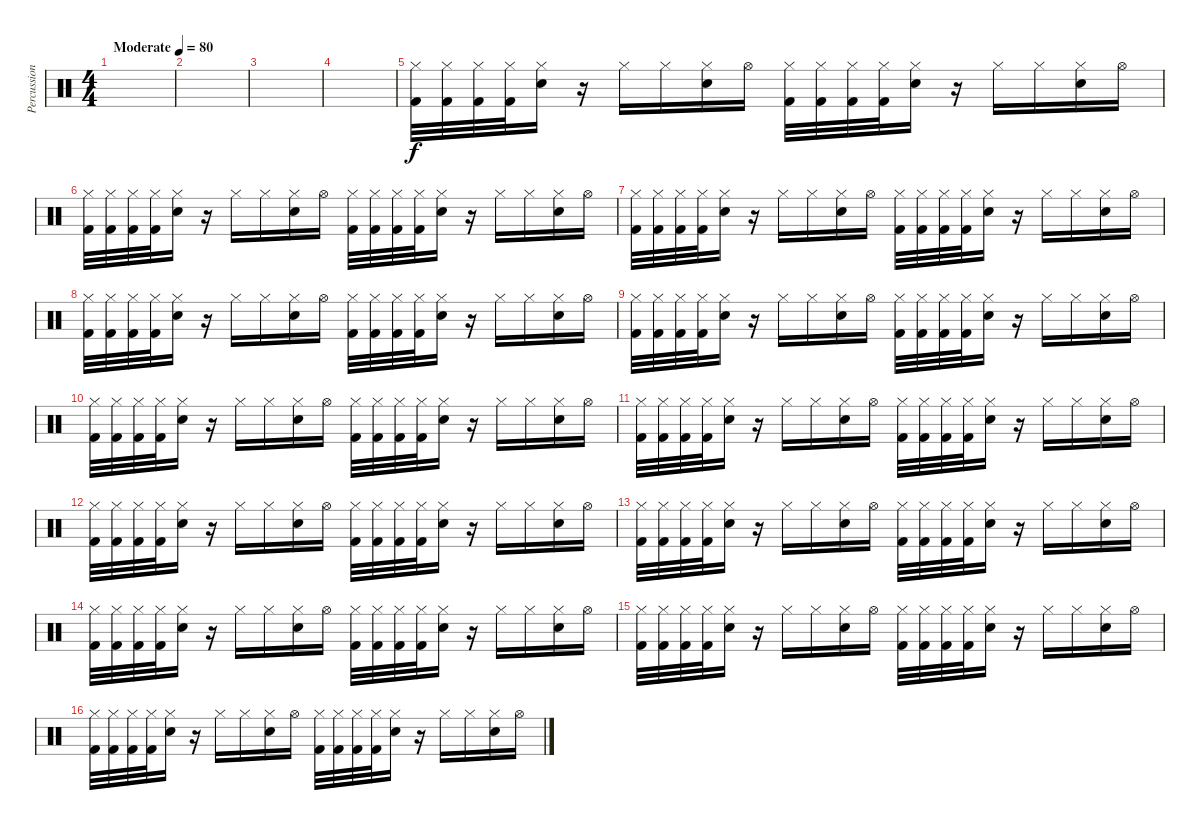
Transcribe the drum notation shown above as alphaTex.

\track ("Percussion" "Percussion") {instrument percussion}
\staff {score}
\articulation defaults
\ts (4 4)
\tempo (80 "Moderate")
\clef neutral
\ks c
|
|
|
|
("Hi-Hat (closed)" "Kick (hit) 2").32 ("Hi-Hat (closed)" "Kick (hit) 2").32 ("Hi-Hat (closed)" "Kick (hit) 2").32 ("Hi-Hat (closed)" "Kick (hit) 2").32 ("Hi-Hat (closed)" "Snare (hit) 2").16 r.16 "Hi-Hat (closed)".16 "Hi-Hat (closed)".16 ("Hi-Hat (closed)" "Snare (hit) 2").16 "Hi-Hat (open)".16 ("Hi-Hat (closed)" "Kick (hit) 2").32 ("Hi-Hat (closed)" "Kick (hit) 2").32 ("Hi-Hat (closed)" "Kick (hit) 2").32 ("Hi-Hat (closed)" "Kick (hit) 2").32 ("Hi-Hat (closed)" "Snare (hit) 2").16 r.16 "Hi-Hat (closed)".16 "Hi-Hat (closed)".16 ("Hi-Hat (closed)" "Snare (hit) 2").16 "Hi-Hat (open)".16 |
("Hi-Hat (closed)" "Kick (hit) 2").32 ("Hi-Hat (closed)" "Kick (hit) 2").32 ("Hi-Hat (closed)" "Kick (hit) 2").32 ("Hi-Hat (closed)" "Kick (hit) 2").32 ("Hi-Hat (closed)" "Snare (hit) 2").16 r.16 "Hi-Hat (closed)".16 "Hi-Hat (closed)".16 ("Hi-Hat (closed)" "Snare (hit) 2").16 "Hi-Hat (open)".16 ("Hi-Hat (closed)" "Kick (hit) 2").32 ("Hi-Hat (closed)" "Kick (hit) 2").32 ("Hi-Hat (closed)" "Kick (hit) 2").32 ("Hi-Hat (closed)" "Kick (hit) 2").32 ("Hi-Hat (closed)" "Snare (hit) 2").16 r.16 "Hi-Hat (closed)".16 "Hi-Hat (closed)".16 ("Hi-Hat (closed)" "Snare (hit) 2").16 "Hi-Hat (open)".16 |
("Hi-Hat (closed)" "Kick (hit) 2").32 ("Hi-Hat (closed)" "Kick (hit) 2").32 ("Hi-Hat (closed)" "Kick (hit) 2").32 ("Hi-Hat (closed)" "Kick (hit) 2").32 ("Hi-Hat (closed)" "Snare (hit) 2").16 r.16 "Hi-Hat (closed)".16 "Hi-Hat (closed)".16 ("Hi-Hat (closed)" "Snare (hit) 2").16 "Hi-Hat (open)".16 ("Hi-Hat (closed)" "Kick (hit) 2").32 ("Hi-Hat (closed)" "Kick (hit) 2").32 ("Hi-Hat (closed)" "Kick (hit) 2").32 ("Hi-Hat (closed)" "Kick (hit) 2").32 ("Hi-Hat (closed)" "Snare (hit) 2").16 r.16 "Hi-Hat (closed)".16 "Hi-Hat (closed)".16 ("Hi-Hat (closed)" "Snare (hit) 2").16 "Hi-Hat (open)".16 |
("Hi-Hat (closed)" "Kick (hit) 2").32 ("Hi-Hat (closed)" "Kick (hit) 2").32 ("Hi-Hat (closed)" "Kick (hit) 2").32 ("Hi-Hat (closed)" "Kick (hit) 2").32 ("Hi-Hat (closed)" "Snare (hit) 2").16 r.16 "Hi-Hat (closed)".16 "Hi-Hat (closed)".16 ("Hi-Hat (closed)" "Snare (hit) 2").16 "Hi-Hat (open)".16 ("Hi-Hat (closed)" "Kick (hit) 2").32 ("Hi-Hat (closed)" "Kick (hit) 2").32 ("Hi-Hat (closed)" "Kick (hit) 2").32 ("Hi-Hat (closed)" "Kick (hit) 2").32 ("Hi-Hat (closed)" "Snare (hit) 2").16 r.16 "Hi-Hat (closed)".16 "Hi-Hat (closed)".16 ("Hi-Hat (closed)" "Snare (hit) 2").16 "Hi-Hat (open)".16 |
("Hi-Hat (closed)" "Kick (hit) 2").32 ("Hi-Hat (closed)" "Kick (hit) 2").32 ("Hi-Hat (closed)" "Kick (hit) 2").32 ("Hi-Hat (closed)" "Kick (hit) 2").32 ("Hi-Hat (closed)" "Snare (hit) 2").16 r.16 "Hi-Hat (closed)".16 "Hi-Hat (closed)".16 ("Hi-Hat (closed)" "Snare (hit) 2").16 "Hi-Hat (open)".16 ("Hi-Hat (closed)" "Kick (hit) 2").32 ("Hi-Hat (closed)" "Kick (hit) 2").32 ("Hi-Hat (closed)" "Kick (hit) 2").32 ("Hi-Hat (closed)" "Kick (hit) 2").32 ("Hi-Hat (closed)" "Snare (hit) 2").16 r.16 "Hi-Hat (closed)".16 "Hi-Hat (closed)".16 ("Hi-Hat (closed)" "Snare (hit) 2").16 "Hi-Hat (open)".16 |
("Hi-Hat (closed)" "Kick (hit) 2").32 ("Hi-Hat (closed)" "Kick (hit) 2").32 ("Hi-Hat (closed)" "Kick (hit) 2").32 ("Hi-Hat (closed)" "Kick (hit) 2").32 ("Hi-Hat (closed)" "Snare (hit) 2").16 r.16 "Hi-Hat (closed)".16 "Hi-Hat (closed)".16 ("Hi-Hat (closed)" "Snare (hit) 2").16 "Hi-Hat (open)".16 ("Hi-Hat (closed)" "Kick (hit) 2").32 ("Hi-Hat (closed)" "Kick (hit) 2").32 ("Hi-Hat (closed)" "Kick (hit) 2").32 ("Hi-Hat (closed)" "Kick (hit) 2").32 ("Hi-Hat (closed)" "Snare (hit) 2").16 r.16 "Hi-Hat (closed)".16 "Hi-Hat (closed)".16 ("Hi-Hat (closed)" "Snare (hit) 2").16 "Hi-Hat (open)".16 |
("Hi-Hat (closed)" "Kick (hit) 2").32 ("Hi-Hat (closed)" "Kick (hit) 2").32 ("Hi-Hat (closed)" "Kick (hit) 2").32 ("Hi-Hat (closed)" "Kick (hit) 2").32 ("Hi-Hat (closed)" "Snare (hit) 2").16 r.16 "Hi-Hat (closed)".16 "Hi-Hat (closed)".16 ("Hi-Hat (closed)" "Snare (hit) 2").16 "Hi-Hat (open)".16 ("Hi-Hat (closed)" "Kick (hit) 2").32 ("Hi-Hat (closed)" "Kick (hit) 2").32 ("Hi-Hat (closed)" "Kick (hit) 2").32 ("Hi-Hat (closed)" "Kick (hit) 2").32 ("Hi-Hat (closed)" "Snare (hit) 2").16 r.16 "Hi-Hat (closed)".16 "Hi-Hat (closed)".16 ("Hi-Hat (closed)" "Snare (hit) 2").16 "Hi-Hat (open)".16 |
("Hi-Hat (closed)" "Kick (hit) 2").32 ("Hi-Hat (closed)" "Kick (hit) 2").32 ("Hi-Hat (closed)" "Kick (hit) 2").32 ("Hi-Hat (closed)" "Kick (hit) 2").32 ("Hi-Hat (closed)" "Snare (hit) 2").16 r.16 "Hi-Hat (closed)".16 "Hi-Hat (closed)".16 ("Hi-Hat (closed)" "Snare (hit) 2").16 "Hi-Hat (open)".16 ("Hi-Hat (closed)" "Kick (hit) 2").32 ("Hi-Hat (closed)" "Kick (hit) 2").32 ("Hi-Hat (closed)" "Kick (hit) 2").32 ("Hi-Hat (closed)" "Kick (hit) 2").32 ("Hi-Hat (closed)" "Snare (hit) 2").16 r.16 "Hi-Hat (closed)".16 "Hi-Hat (closed)".16 ("Hi-Hat (closed)" "Snare (hit) 2").16 "Hi-Hat (open)".16 |
("Hi-Hat (closed)" "Kick (hit) 2").32 ("Hi-Hat (closed)" "Kick (hit) 2").32 ("Hi-Hat (closed)" "Kick (hit) 2").32 ("Hi-Hat (closed)" "Kick (hit) 2").32 ("Hi-Hat (closed)" "Snare (hit) 2").16 r.16 "Hi-Hat (closed)".16 "Hi-Hat (closed)".16 ("Hi-Hat (closed)" "Snare (hit) 2").16 "Hi-Hat (open)".16 ("Hi-Hat (closed)" "Kick (hit) 2").32 ("Hi-Hat (closed)" "Kick (hit) 2").32 ("Hi-Hat (closed)" "Kick (hit) 2").32 ("Hi-Hat (closed)" "Kick (hit) 2").32 ("Hi-Hat (closed)" "Snare (hit) 2").16 r.16 "Hi-Hat (closed)".16 "Hi-Hat (closed)".16 ("Hi-Hat (closed)" "Snare (hit) 2").16 "Hi-Hat (open)".16 |
("Hi-Hat (closed)" "Kick (hit) 2").32 ("Hi-Hat (closed)" "Kick (hit) 2").32 ("Hi-Hat (closed)" "Kick (hit) 2").32 ("Hi-Hat (closed)" "Kick (hit) 2").32 ("Hi-Hat (closed)" "Snare (hit) 2").16 r.16 "Hi-Hat (closed)".16 "Hi-Hat (closed)".16 ("Hi-Hat (closed)" "Snare (hit) 2").16 "Hi-Hat (open)".16 ("Hi-Hat (closed)" "Kick (hit) 2").32 ("Hi-Hat (closed)" "Kick (hit) 2").32 ("Hi-Hat (closed)" "Kick (hit) 2").32 ("Hi-Hat (closed)" "Kick (hit) 2").32 ("Hi-Hat (closed)" "Snare (hit) 2").16 r.16 "Hi-Hat (closed)".16 "Hi-Hat (closed)".16 ("Hi-Hat (closed)" "Snare (hit) 2").16 "Hi-Hat (open)".16 |
("Hi-Hat (closed)" "Kick (hit) 2").32 ("Hi-Hat (closed)" "Kick (hit) 2").32 ("Hi-Hat (closed)" "Kick (hit) 2").32 ("Hi-Hat (closed)" "Kick (hit) 2").32 ("Hi-Hat (closed)" "Snare (hit) 2").16 r.16 "Hi-Hat (closed)".16 "Hi-Hat (closed)".16 ("Hi-Hat (closed)" "Snare (hit) 2").16 "Hi-Hat (open)".16 ("Hi-Hat (closed)" "Kick (hit) 2").32 ("Hi-Hat (closed)" "Kick (hit) 2").32 ("Hi-Hat (closed)" "Kick (hit) 2").32 ("Hi-Hat (closed)" "Kick (hit) 2").32 ("Hi-Hat (closed)" "Snare (hit) 2").16 r.16 "Hi-Hat (closed)".16 "Hi-Hat (closed)".16 ("Hi-Hat (closed)" "Snare (hit) 2").16 "Hi-Hat (open)".16 |
("Hi-Hat (closed)" "Kick (hit) 2").32 ("Hi-Hat (closed)" "Kick (hit) 2").32 ("Hi-Hat (closed)" "Kick (hit) 2").32 ("Hi-Hat (closed)" "Kick (hit) 2").32 ("Hi-Hat (closed)" "Snare (hit) 2").16 r.16 "Hi-Hat (closed)".16 "Hi-Hat (closed)".16 ("Hi-Hat (closed)" "Snare (hit) 2").16 "Hi-Hat (open)".16 ("Hi-Hat (closed)" "Kick (hit) 2").32 ("Hi-Hat (closed)" "Kick (hit) 2").32 ("Hi-Hat (closed)" "Kick (hit) 2").32 ("Hi-Hat (closed)" "Kick (hit) 2").32 ("Hi-Hat (closed)" "Snare (hit) 2").16 r.16 "Hi-Hat (closed)".16 "Hi-Hat (closed)".16 ("Hi-Hat (closed)" "Snare (hit) 2").16 "Hi-Hat (open)".16
